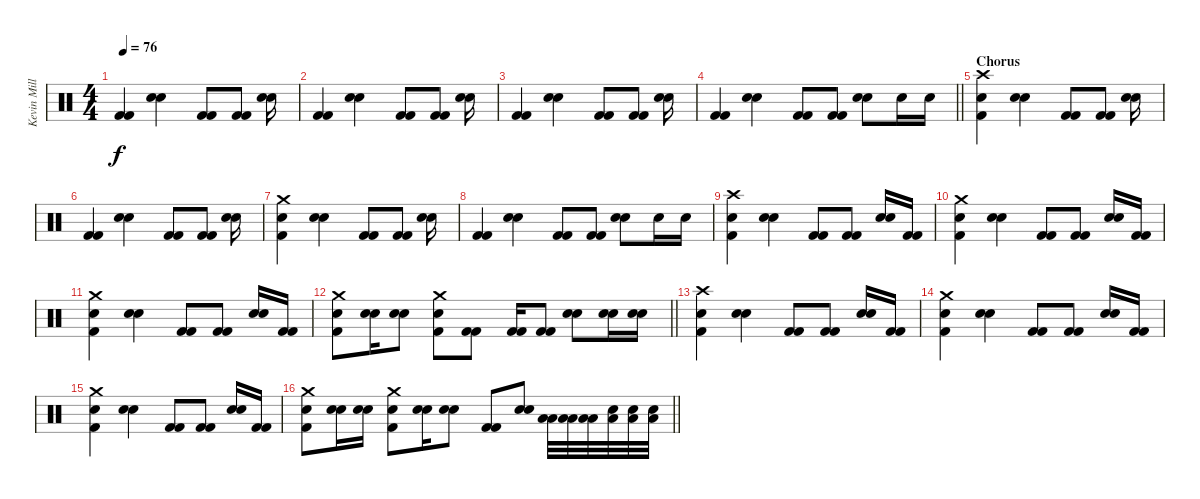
\track ("Kevin Miller (Drums)" "Kevin Mill") {instrument percussion}
\staff {score}
\articulation defaults
\ts (4 4)
\tempo 76
\clef neutral
\ks c
("Kick (hit) 2" "Kick (hit) 2").4{dy f} ("Electric Snare (hit)" "Electric Snare (hit)").4 ("Kick (hit) 2" "Kick (hit) 2").8 ("Kick (hit) 2" "Kick (hit) 2").8 ("Electric Snare (hit)" "Electric Snare (hit)").16 |
("Kick (hit) 2" "Kick (hit) 2").4 ("Electric Snare (hit)" "Electric Snare (hit)").4 ("Kick (hit) 2" "Kick (hit) 2").8 ("Kick (hit) 2" "Kick (hit) 2").8 ("Electric Snare (hit)" "Electric Snare (hit)").16 |
("Kick (hit) 2" "Kick (hit) 2").4 ("Electric Snare (hit)" "Electric Snare (hit)").4 ("Kick (hit) 2" "Kick (hit) 2").8 ("Kick (hit) 2" "Kick (hit) 2").8 ("Electric Snare (hit)" "Electric Snare (hit)").16 |
\barLineRight lightlight
("Kick (hit) 2" "Kick (hit) 2").4 ("Electric Snare (hit)" "Electric Snare (hit)").4 ("Kick (hit) 2" "Kick (hit) 2").8 ("Kick (hit) 2" "Kick (hit) 2").8 ("Electric Snare (hit)" "Electric Snare (hit)").8 "Electric Snare (hit)".16 "Electric Snare (hit)".16 |
\section ("" "Chorus")
("Crash high (hit)" "Electric Snare (hit)" "Kick (hit) 2").4 ("Electric Snare (hit)" "Electric Snare (hit)").4 ("Kick (hit) 2" "Kick (hit) 2").8 ("Kick (hit) 2" "Kick (hit) 2").8 ("Electric Snare (hit)" "Electric Snare (hit)").16 |
("Kick (hit) 2" "Kick (hit) 2").4 ("Electric Snare (hit)" "Electric Snare (hit)").4 ("Kick (hit) 2" "Kick (hit) 2").8 ("Kick (hit) 2" "Kick (hit) 2").8 ("Electric Snare (hit)" "Electric Snare (hit)").16 |
("Crash medium (hit)" "Electric Snare (hit)" "Kick (hit) 2").4 ("Electric Snare (hit)" "Electric Snare (hit)").4 ("Kick (hit) 2" "Kick (hit) 2").8 ("Kick (hit) 2" "Kick (hit) 2").8 ("Electric Snare (hit)" "Electric Snare (hit)").16 |
("Kick (hit) 2" "Kick (hit) 2").4 ("Electric Snare (hit)" "Electric Snare (hit)").4 ("Kick (hit) 2" "Kick (hit) 2").8 ("Kick (hit) 2" "Kick (hit) 2").8 ("Electric Snare (hit)" "Electric Snare (hit)").8 "Electric Snare (hit)".16 "Electric Snare (hit)".16 |
("Crash high (hit)" "Electric Snare (hit)" "Kick (hit) 2").4 ("Electric Snare (hit)" "Electric Snare (hit)").4 ("Kick (hit) 2" "Kick (hit) 2").8 ("Kick (hit) 2" "Kick (hit) 2").8 ("Electric Snare (hit)" "Electric Snare (hit)").16 ("Kick (hit) 2" "Kick (hit) 2").16 |
("Crash medium (hit)" "Electric Snare (hit)" "Kick (hit) 2").4 ("Electric Snare (hit)" "Electric Snare (hit)").4 ("Kick (hit) 2" "Kick (hit) 2").8 ("Kick (hit) 2" "Kick (hit) 2").8 ("Electric Snare (hit)" "Electric Snare (hit)").16 ("Kick (hit) 2" "Kick (hit) 2").16 |
("Crash medium (hit)" "Electric Snare (hit)" "Kick (hit) 2").4 ("Electric Snare (hit)" "Electric Snare (hit)").4 ("Kick (hit) 2" "Kick (hit) 2").8 ("Kick (hit) 2" "Kick (hit) 2").8 ("Electric Snare (hit)" "Electric Snare (hit)").16 ("Kick (hit) 2" "Kick (hit) 2").16 |
\barLineRight lightlight
("Crash medium (hit)" "Electric Snare (hit)" "Kick (hit) 2").8 ("Electric Snare (hit)" "Electric Snare (hit)").16 ("Electric Snare (hit)" "Electric Snare (hit)").8 ("Crash medium (hit)" "Electric Snare (hit)" "Kick (hit) 2").8 ("Kick (hit) 2" "Kick (hit) 2").8 ("Kick (hit) 2" "Kick (hit) 2").16 ("Kick (hit) 2" "Kick (hit) 2").8 ("Snare (hit) 2" "Snare (hit) 2").8 ("Electric Snare (hit)" "Electric Snare (hit)").16 ("Electric Snare (hit)" "Electric Snare (hit)").16 |
("Crash high (hit)" "Electric Snare (hit)" "Kick (hit) 2").4 ("Electric Snare (hit)" "Electric Snare (hit)").4 ("Kick (hit) 2" "Kick (hit) 2").8 ("Kick (hit) 2" "Kick (hit) 2").8 ("Electric Snare (hit)" "Electric Snare (hit)").16 ("Kick (hit) 2" "Kick (hit) 2").16 |
("Crash medium (hit)" "Electric Snare (hit)" "Kick (hit) 2").4 ("Electric Snare (hit)" "Electric Snare (hit)").4 ("Kick (hit) 2" "Kick (hit) 2").8 ("Kick (hit) 2" "Kick (hit) 2").8 ("Electric Snare (hit)" "Electric Snare (hit)").16 ("Kick (hit) 2" "Kick (hit) 2").16 |
("Crash medium (hit)" "Electric Snare (hit)" "Kick (hit) 2").4 ("Electric Snare (hit)" "Electric Snare (hit)").4 ("Kick (hit) 2" "Kick (hit) 2").8 ("Kick (hit) 2" "Kick (hit) 2").8 ("Electric Snare (hit)" "Electric Snare (hit)").16 ("Kick (hit) 2" "Kick (hit) 2").16 |
\barLineRight lightlight
("Crash medium (hit)" "Electric Snare (hit)" "Kick (hit) 2").8 ("Electric Snare (hit)" "Electric Snare (hit)").16 ("Electric Snare (hit)" "Electric Snare (hit)").16 ("Crash medium (hit)" "Electric Snare (hit)" "Kick (hit) 2").8 ("Electric Snare (hit)" "Electric Snare (hit)").16 ("Electric Snare (hit)" "Electric Snare (hit)").8 ("Kick (hit) 2" "Kick (hit) 2").8 ("Electric Snare (hit)" "Electric Snare (hit)").8 ("Low Tom (hit)" "Low Tom (hit)").32 ("Low Tom (hit)" "Low Tom (hit)").32 ("Low Tom (hit)" "Low Tom (hit)").32 ("Low Tom (hit)" "Electric Snare (hit)").32 ("Low Tom (hit)" "Electric Snare (hit)").32 ("Low Tom (hit)" "Electric Snare (hit)").32
